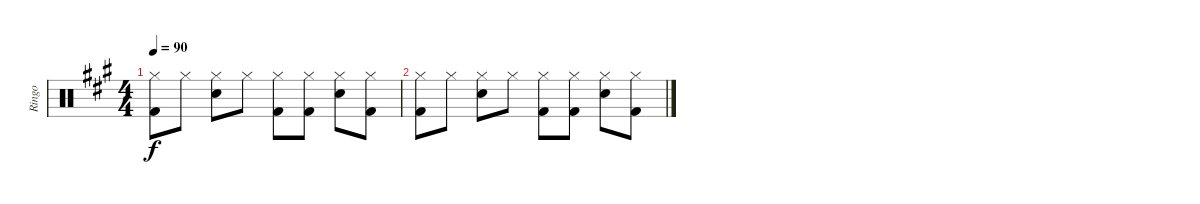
\track ("Ringo" "Ringo") {instrument percussion}
\staff {score}
\articulation defaults
\ts (4 4)
\tempo 90
\clef neutral
\ks a
("Hi-Hat (closed)" "Kick (hit) 2").8{dy f} "Hi-Hat (closed)".8 ("Hi-Hat (closed)" "Snare (hit) 2").8 "Hi-Hat (closed)".8 ("Hi-Hat (closed)" "Kick (hit) 2").8 ("Hi-Hat (closed)" "Kick (hit) 2").8 ("Hi-Hat (closed)" "Snare (hit) 2").8 ("Hi-Hat (closed)" "Kick (hit) 2").8 |
("Hi-Hat (closed)" "Kick (hit) 2").8 "Hi-Hat (closed)".8 ("Hi-Hat (closed)" "Snare (hit) 2").8 "Hi-Hat (closed)".8 ("Hi-Hat (closed)" "Kick (hit) 2").8 ("Hi-Hat (closed)" "Kick (hit) 2").8 ("Hi-Hat (closed)" "Snare (hit) 2").8 ("Hi-Hat (closed)" "Kick (hit) 2").8
